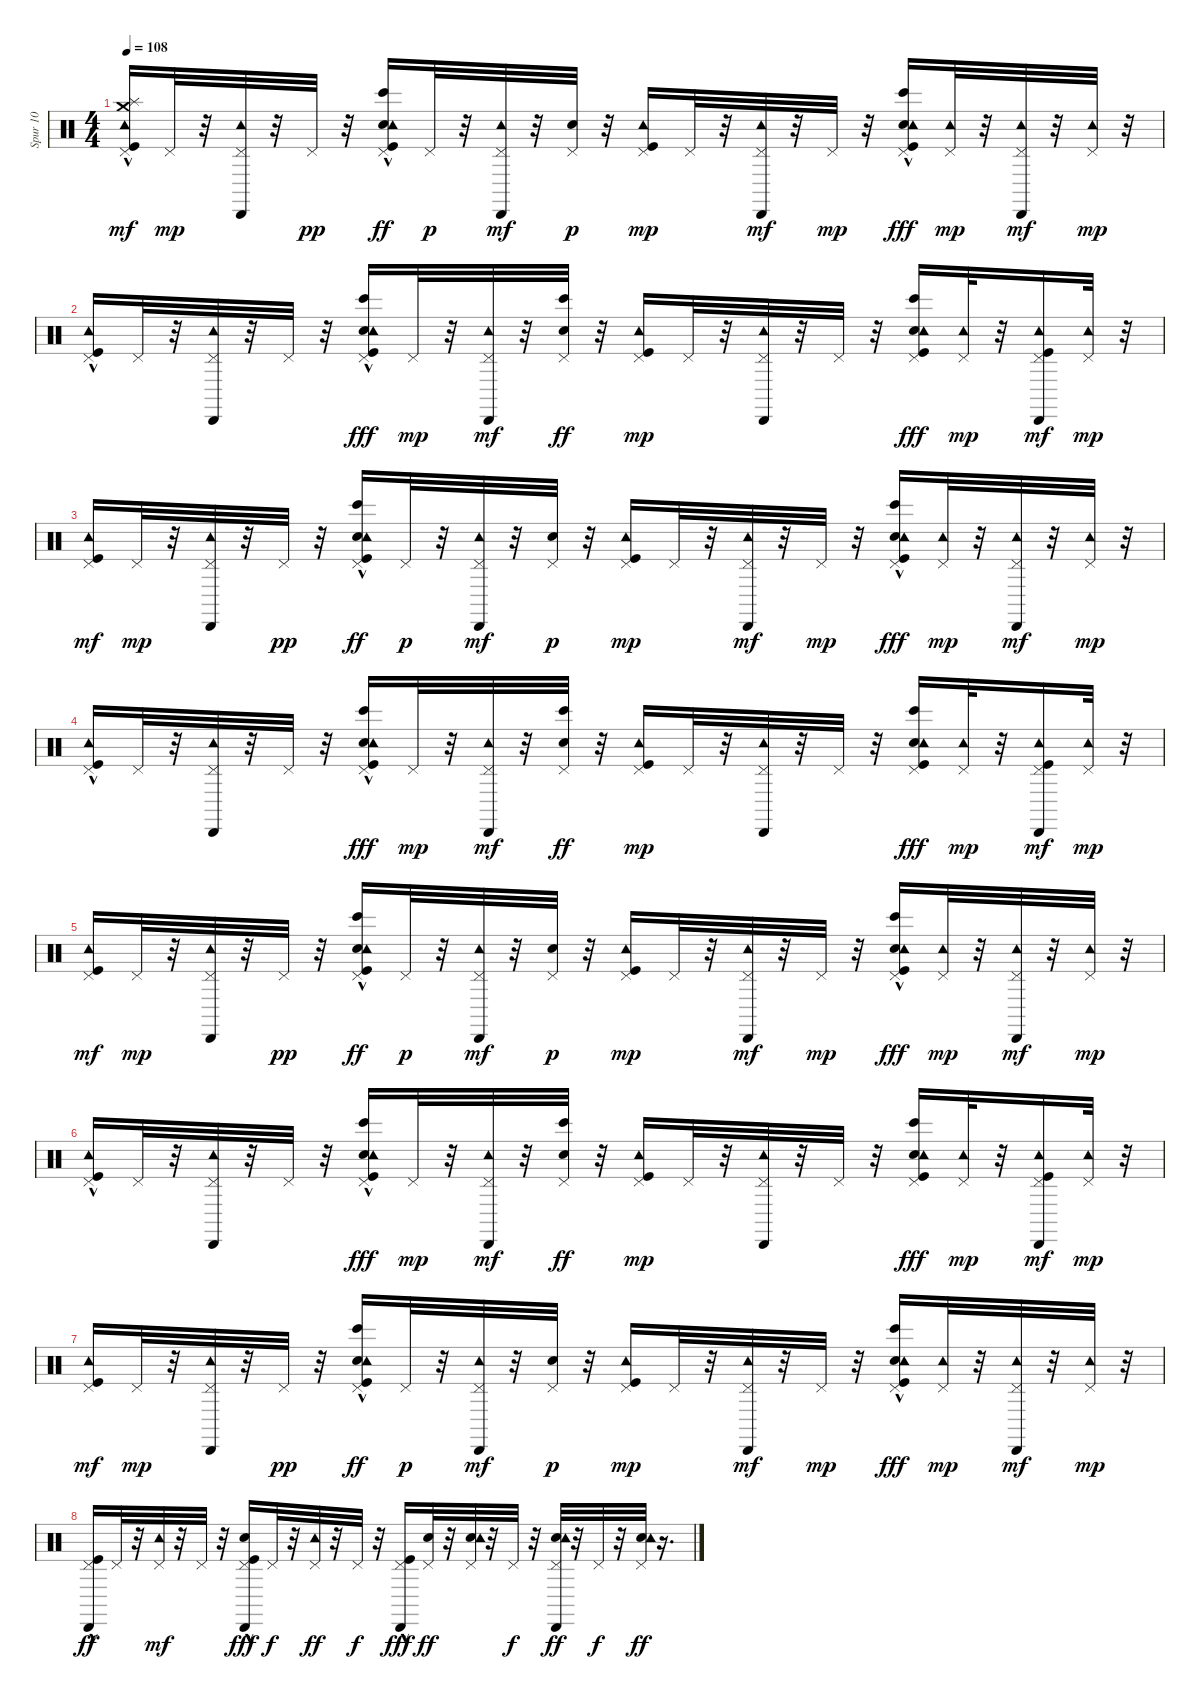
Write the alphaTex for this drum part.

\track ("Spur 10" "Spur 10") {instrument percussion}
\staff {score}
\articulation defaults
\ts (4 4)
\tempo 108
\clef neutral
\ks c
("Kick (hit)" "Tambourine (hit)" "Pedal Hi-Hat (hit)" "Splash (hit)"{hac} "Crash medium (hit)").16{dy mf} "Pedal Hi-Hat (hit)".32{dy mp} r.32 ("Tambourine (hit)" "Pedal Hi-Hat (hit)" "Cabasa (hit)").32 r.32 "Pedal Hi-Hat (hit)".32{dy pp} r.32 ("Kick (hit)"{hac} "Snare (hit) 2"{hac} "Tambourine (hit)" "Pedal Hi-Hat (hit)" "Bongo High (hit)").16{dy ff} "Pedal Hi-Hat (hit)".32{dy p} r.32 ("Tambourine (hit)" "Pedal Hi-Hat (hit)" "Cabasa (hit)").32{dy mf} r.32 ("Snare (hit) 2" "Pedal Hi-Hat (hit)").32{dy p} r.32 ("Kick (hit)" "Tambourine (hit)" "Pedal Hi-Hat (hit)").16{dy mp} "Pedal Hi-Hat (hit)".32 r.32 ("Tambourine (hit)" "Pedal Hi-Hat (hit)" "Cabasa (hit)").32{dy mf} r.32 "Pedal Hi-Hat (hit)".32{dy mp} r.32 ("Snare (hit) 2" "Kick (hit)"{hac} "Tambourine (hit)" "Pedal Hi-Hat (hit)" "Bongo High (hit)").16{dy fff} ("Tambourine (hit)" "Pedal Hi-Hat (hit)").32{dy mp} r.32 ("Tambourine (hit)" "Pedal Hi-Hat (hit)" "Cabasa (hit)").32{dy mf} r.32 ("Tambourine (hit)" "Pedal Hi-Hat (hit)").32{dy mp} r.32 |
("Kick (hit)"{hac} "Tambourine (hit)" "Pedal Hi-Hat (hit)").16 "Pedal Hi-Hat (hit)".32 r.32 ("Tambourine (hit)" "Pedal Hi-Hat (hit)" "Cabasa (hit)").32 r.32 "Pedal Hi-Hat (hit)".32 r.32 ("Kick (hit)"{hac} "Snare (hit) 2" "Tambourine (hit)" "Pedal Hi-Hat (hit)" "Bongo High (hit)"{hac}).16{dy fff} "Pedal Hi-Hat (hit)".32{dy mp} r.32 ("Tambourine (hit)" "Pedal Hi-Hat (hit)" "Cabasa (hit)").32{dy mf} r.32 ("Snare (hit) 2" "Pedal Hi-Hat (hit)" "Bongo High (hit)").32{dy ff} r.32 ("Kick (hit)" "Tambourine (hit)" "Pedal Hi-Hat (hit)").16{dy mp} "Pedal Hi-Hat (hit)".32 r.32 ("Tambourine (hit)" "Pedal Hi-Hat (hit)" "Cabasa (hit)").32 r.32 "Pedal Hi-Hat (hit)".32 r.32 ("Snare (hit) 2" "Kick (hit)" "Tambourine (hit)" "Pedal Hi-Hat (hit)" "Bongo High (hit)").16{dy fff} ("Tambourine (hit)" "Pedal Hi-Hat (hit)").32{dy mp} r.32 ("Kick (hit)" "Tambourine (hit)" "Pedal Hi-Hat (hit)" "Cabasa (hit)").16{dy mf} ("Tambourine (hit)" "Pedal Hi-Hat (hit)").32{dy mp} r.32 |
("Kick (hit)" "Tambourine (hit)" "Pedal Hi-Hat (hit)").16{dy mf} "Pedal Hi-Hat (hit)".32{dy mp} r.32 ("Tambourine (hit)" "Pedal Hi-Hat (hit)" "Cabasa (hit)").32 r.32 "Pedal Hi-Hat (hit)".32{dy pp} r.32 ("Kick (hit)"{hac} "Snare (hit) 2"{hac} "Tambourine (hit)" "Pedal Hi-Hat (hit)" "Bongo High (hit)").16{dy ff} "Pedal Hi-Hat (hit)".32{dy p} r.32 ("Tambourine (hit)" "Pedal Hi-Hat (hit)" "Cabasa (hit)").32{dy mf} r.32 ("Snare (hit) 2" "Pedal Hi-Hat (hit)").32{dy p} r.32 ("Kick (hit)" "Tambourine (hit)" "Pedal Hi-Hat (hit)").16{dy mp} "Pedal Hi-Hat (hit)".32 r.32 ("Tambourine (hit)" "Pedal Hi-Hat (hit)" "Cabasa (hit)").32{dy mf} r.32 "Pedal Hi-Hat (hit)".32{dy mp} r.32 ("Snare (hit) 2" "Kick (hit)"{hac} "Tambourine (hit)" "Pedal Hi-Hat (hit)" "Bongo High (hit)").16{dy fff} ("Tambourine (hit)" "Pedal Hi-Hat (hit)").32{dy mp} r.32 ("Tambourine (hit)" "Pedal Hi-Hat (hit)" "Cabasa (hit)").32{dy mf} r.32 ("Tambourine (hit)" "Pedal Hi-Hat (hit)").32{dy mp} r.32 |
("Kick (hit)"{hac} "Tambourine (hit)" "Pedal Hi-Hat (hit)").16 "Pedal Hi-Hat (hit)".32 r.32 ("Tambourine (hit)" "Pedal Hi-Hat (hit)" "Cabasa (hit)").32 r.32 "Pedal Hi-Hat (hit)".32 r.32 ("Kick (hit)"{hac} "Snare (hit) 2" "Tambourine (hit)" "Pedal Hi-Hat (hit)" "Bongo High (hit)"{hac}).16{dy fff} "Pedal Hi-Hat (hit)".32{dy mp} r.32 ("Tambourine (hit)" "Pedal Hi-Hat (hit)" "Cabasa (hit)").32{dy mf} r.32 ("Snare (hit) 2" "Pedal Hi-Hat (hit)" "Bongo High (hit)").32{dy ff} r.32 ("Kick (hit)" "Tambourine (hit)" "Pedal Hi-Hat (hit)").16{dy mp} "Pedal Hi-Hat (hit)".32 r.32 ("Tambourine (hit)" "Pedal Hi-Hat (hit)" "Cabasa (hit)").32 r.32 "Pedal Hi-Hat (hit)".32 r.32 ("Snare (hit) 2" "Kick (hit)" "Tambourine (hit)" "Pedal Hi-Hat (hit)" "Bongo High (hit)").16{dy fff} ("Tambourine (hit)" "Pedal Hi-Hat (hit)").32{dy mp} r.32 ("Kick (hit)" "Tambourine (hit)" "Pedal Hi-Hat (hit)" "Cabasa (hit)").16{dy mf} ("Tambourine (hit)" "Pedal Hi-Hat (hit)").32{dy mp} r.32 |
("Kick (hit)" "Tambourine (hit)" "Pedal Hi-Hat (hit)").16{dy mf} "Pedal Hi-Hat (hit)".32{dy mp} r.32 ("Tambourine (hit)" "Pedal Hi-Hat (hit)" "Cabasa (hit)").32 r.32 "Pedal Hi-Hat (hit)".32{dy pp} r.32 ("Kick (hit)"{hac} "Snare (hit) 2"{hac} "Tambourine (hit)" "Pedal Hi-Hat (hit)" "Bongo High (hit)").16{dy ff} "Pedal Hi-Hat (hit)".32{dy p} r.32 ("Tambourine (hit)" "Pedal Hi-Hat (hit)" "Cabasa (hit)").32{dy mf} r.32 ("Snare (hit) 2" "Pedal Hi-Hat (hit)").32{dy p} r.32 ("Kick (hit)" "Tambourine (hit)" "Pedal Hi-Hat (hit)").16{dy mp} "Pedal Hi-Hat (hit)".32 r.32 ("Tambourine (hit)" "Pedal Hi-Hat (hit)" "Cabasa (hit)").32{dy mf} r.32 "Pedal Hi-Hat (hit)".32{dy mp} r.32 ("Snare (hit) 2" "Kick (hit)"{hac} "Tambourine (hit)" "Pedal Hi-Hat (hit)" "Bongo High (hit)").16{dy fff} ("Tambourine (hit)" "Pedal Hi-Hat (hit)").32{dy mp} r.32 ("Tambourine (hit)" "Pedal Hi-Hat (hit)" "Cabasa (hit)").32{dy mf} r.32 ("Tambourine (hit)" "Pedal Hi-Hat (hit)").32{dy mp} r.32 |
("Kick (hit)"{hac} "Tambourine (hit)" "Pedal Hi-Hat (hit)").16 "Pedal Hi-Hat (hit)".32 r.32 ("Tambourine (hit)" "Pedal Hi-Hat (hit)" "Cabasa (hit)").32 r.32 "Pedal Hi-Hat (hit)".32 r.32 ("Kick (hit)"{hac} "Snare (hit) 2" "Tambourine (hit)" "Pedal Hi-Hat (hit)" "Bongo High (hit)"{hac}).16{dy fff} "Pedal Hi-Hat (hit)".32{dy mp} r.32 ("Tambourine (hit)" "Pedal Hi-Hat (hit)" "Cabasa (hit)").32{dy mf} r.32 ("Snare (hit) 2" "Pedal Hi-Hat (hit)" "Bongo High (hit)").32{dy ff} r.32 ("Kick (hit)" "Tambourine (hit)" "Pedal Hi-Hat (hit)").16{dy mp} "Pedal Hi-Hat (hit)".32 r.32 ("Tambourine (hit)" "Pedal Hi-Hat (hit)" "Cabasa (hit)").32 r.32 "Pedal Hi-Hat (hit)".32 r.32 ("Snare (hit) 2" "Kick (hit)" "Tambourine (hit)" "Pedal Hi-Hat (hit)" "Bongo High (hit)").16{dy fff} ("Tambourine (hit)" "Pedal Hi-Hat (hit)").32{dy mp} r.32 ("Kick (hit)" "Tambourine (hit)" "Pedal Hi-Hat (hit)" "Cabasa (hit)").16{dy mf} ("Tambourine (hit)" "Pedal Hi-Hat (hit)").32{dy mp} r.32 |
("Kick (hit)" "Tambourine (hit)" "Pedal Hi-Hat (hit)").16{dy mf} "Pedal Hi-Hat (hit)".32{dy mp} r.32 ("Tambourine (hit)" "Pedal Hi-Hat (hit)" "Cabasa (hit)").32 r.32 "Pedal Hi-Hat (hit)".32{dy pp} r.32 ("Kick (hit)"{hac} "Snare (hit) 2"{hac} "Tambourine (hit)" "Pedal Hi-Hat (hit)" "Bongo High (hit)").16{dy ff} "Pedal Hi-Hat (hit)".32{dy p} r.32 ("Tambourine (hit)" "Pedal Hi-Hat (hit)" "Cabasa (hit)").32{dy mf} r.32 ("Snare (hit) 2" "Pedal Hi-Hat (hit)").32{dy p} r.32 ("Kick (hit)" "Tambourine (hit)" "Pedal Hi-Hat (hit)").16{dy mp} "Pedal Hi-Hat (hit)".32 r.32 ("Tambourine (hit)" "Pedal Hi-Hat (hit)" "Cabasa (hit)").32{dy mf} r.32 "Pedal Hi-Hat (hit)".32{dy mp} r.32 ("Snare (hit) 2" "Kick (hit)"{hac} "Tambourine (hit)" "Pedal Hi-Hat (hit)" "Bongo High (hit)").16{dy fff} ("Tambourine (hit)" "Pedal Hi-Hat (hit)").32{dy mp} r.32 ("Tambourine (hit)" "Pedal Hi-Hat (hit)" "Cabasa (hit)").32{dy mf} r.32 ("Tambourine (hit)" "Pedal Hi-Hat (hit)").32{dy mp} r.32 |
("Kick (hit)"{hac} "Pedal Hi-Hat (hit)" "Cabasa (hit)"{hac}).16{dy ff} "Pedal Hi-Hat (hit)".32 r.32 ("Pedal Hi-Hat (hit)" "Tambourine (hit)").32{dy mf} r.32 "Pedal Hi-Hat (hit)".32 r.32 ("Kick (hit)" "Snare (hit) 2"{hac} "Pedal Hi-Hat (hit)" "Cabasa (hit)"{hac}).16{dy fff} "Pedal Hi-Hat (hit)".32{dy f} r.32 ("Pedal Hi-Hat (hit)" "Tambourine (hit)").32{dy ff} r.32 "Pedal Hi-Hat (hit)".32{dy f} r.32 ("Kick (hit)" "Pedal Hi-Hat (hit)" "Cabasa (hit)"{hac}).16{dy fff} ("Snare (hit) 2" "Pedal Hi-Hat (hit)").32{dy ff} r.32 ("Snare (hit) 2" "Pedal Hi-Hat (hit)" "Tambourine (hit)").32 r.32 "Pedal Hi-Hat (hit)".32{dy f} r.32 ("Snare (hit) 2" "Pedal Hi-Hat (hit)" "Tambourine (hit)" "Cabasa (hit)").32{dy ff} r.32 "Pedal Hi-Hat (hit)".32{dy f} r.32 ("Snare (hit) 2" "Pedal Hi-Hat (hit)" "Tambourine (hit)").32{dy ff} r.16{d}
